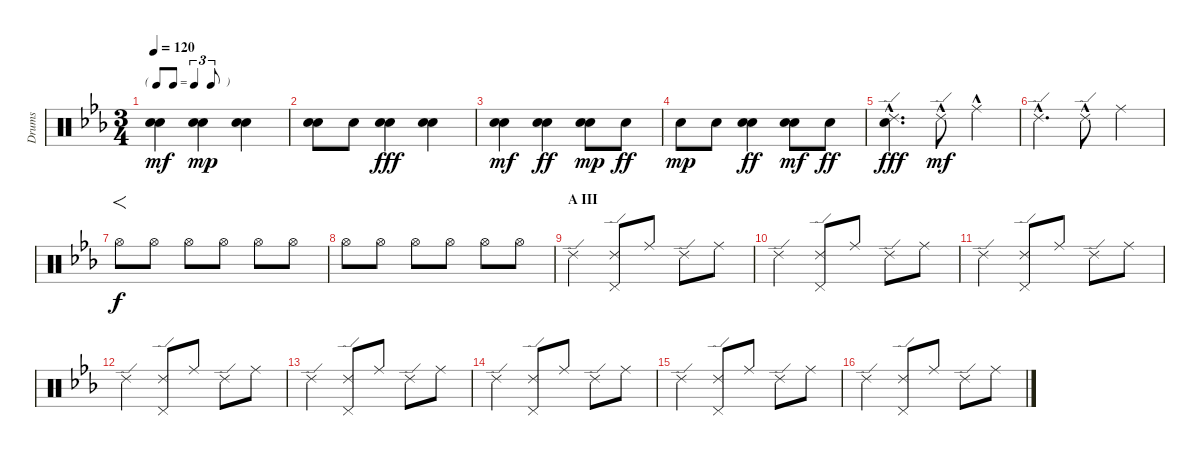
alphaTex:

\track ("Drums" "Drums") {instrument percussion}
\staff {score}
\articulation defaults
\ts (3 4)
\tf triplet8th
\tempo 120
\clef neutral
\ks cminor
("Electric Snare (hit)" "Snare (hit) 2").4{dy mf} ("Electric Snare (hit)" "Snare (hit) 2").4{dy mp} ("Electric Snare (hit)" "Snare (hit) 2").4 |
("Electric Snare (hit)" "Snare (hit) 2").8 "Snare (hit) 2".8 ("Electric Snare (hit)" "Snare (hit) 2").4{dy fff} ("Electric Snare (hit)" "Snare (hit) 2").4 |
("Electric Snare (hit)" "Snare (hit) 2").4{dy mf} ("Electric Snare (hit)" "Snare (hit) 2").4{dy ff} ("Electric Snare (hit)" "Snare (hit) 2").8{dy mp} "Snare (hit) 2".8{dy ff} |
"Electric Snare (hit)".8{dy mp} "Snare (hit) 2".8 ("Electric Snare (hit)" "Snare (hit) 2").4{dy ff} ("Electric Snare (hit)" "Snare (hit) 2").8{dy mf} "Snare (hit) 2".8{dy ff} |
("Ride (edge) 2"{hac} "Snare (hit) 2"{hac}).4{d dy fff} "Ride (edge) 2"{hac}.8{dy mf} "Ride (middle)"{hac}.4 |
"Ride (edge) 2"{hac}.4{d} "Ride (edge) 2"{hac}.8 "Ride (middle)".4 |
"Hi-Hat (open)".8{f dy f} "Hi-Hat (open)".8 "Hi-Hat (open)".8 "Hi-Hat (open)".8 "Hi-Hat (open)".8 "Hi-Hat (open)".8 |
"Hi-Hat (open)".8 "Hi-Hat (open)".8 "Hi-Hat (open)".8 "Hi-Hat (open)".8 "Hi-Hat (open)".8 "Hi-Hat (open)".8 |
\section ("" "A III")
"Ride (edge) 2".4 ("Ride (edge) 2" "Pedal Hi-Hat (hit)").8 "Ride (middle)".8 "Ride (edge) 2".8 "Ride (middle)".8 |
"Ride (edge) 2".4 ("Ride (edge) 2" "Pedal Hi-Hat (hit)").8 "Ride (middle)".8 "Ride (edge) 2".8 "Ride (middle)".8 |
"Ride (edge) 2".4 ("Ride (edge) 2" "Pedal Hi-Hat (hit)").8 "Ride (middle)".8 "Ride (edge) 2".8 "Ride (middle)".8 |
"Ride (edge) 2".4 ("Ride (edge) 2" "Pedal Hi-Hat (hit)").8 "Ride (middle)".8 "Ride (edge) 2".8 "Ride (middle)".8 |
"Ride (edge) 2".4 ("Ride (edge) 2" "Pedal Hi-Hat (hit)").8 "Ride (middle)".8 "Ride (edge) 2".8 "Ride (middle)".8 |
"Ride (edge) 2".4 ("Ride (edge) 2" "Pedal Hi-Hat (hit)").8 "Ride (middle)".8 "Ride (edge) 2".8 "Ride (middle)".8 |
"Ride (edge) 2".4 ("Ride (edge) 2" "Pedal Hi-Hat (hit)").8 "Ride (middle)".8 "Ride (edge) 2".8 "Ride (middle)".8 |
"Ride (edge) 2".4 ("Ride (edge) 2" "Pedal Hi-Hat (hit)").8 "Ride (middle)".8 "Ride (edge) 2".8 "Ride (middle)".8
